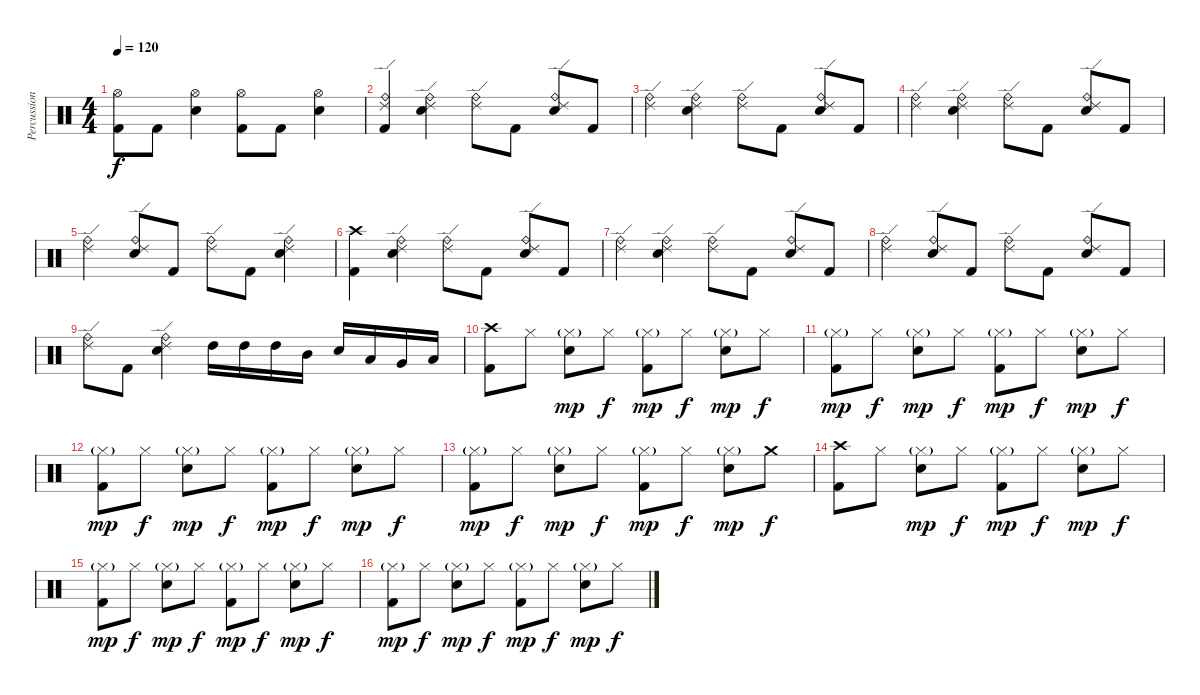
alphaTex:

\track ("Percussion" "Percussion") {instrument percussion}
\staff {score}
\articulation defaults
\ts (4 4)
\tempo 120
\clef neutral
\ks c
("Hi-Hat (open)" "Kick (hit) 2").8{dy f} "Kick (hit) 2".8 ("Hi-Hat (open)" "Electric Snare (hit)").4 ("Hi-Hat (open)" "Kick (hit) 2").8 "Kick (hit) 2".8 ("Hi-Hat (open)" "Electric Snare (hit)").4 |
("Ride (bell)" "Ride (edge) 2" "Kick (hit) 2").4 ("Ride (bell)" "Ride (edge) 2" "Electric Snare (hit)").4 ("Ride (bell)" "Ride (edge) 2").8 "Kick (hit) 2".8 ("Ride (bell)" "Ride (edge) 2" "Electric Snare (hit)").8 "Kick (hit) 2".8 |
("Ride (edge) 2" "Ride (bell)").4 ("Ride (edge) 2" "Ride (bell)" "Electric Snare (hit)").4 ("Ride (edge) 2" "Ride (bell)").8 "Kick (hit) 2".8 ("Ride (edge) 2" "Ride (bell)" "Electric Snare (hit)").8 "Kick (hit) 2".8 |
("Ride (bell)" "Ride (edge) 2").4 ("Ride (bell)" "Ride (edge) 2" "Electric Snare (hit)").4 ("Ride (bell)" "Ride (edge) 2").8 "Kick (hit) 2".8 ("Ride (bell)" "Ride (edge) 2" "Electric Snare (hit)").8 "Kick (hit) 2".8 |
("Ride (bell)" "Ride (edge) 2").4 ("Ride (bell)" "Ride (edge) 2" "Electric Snare (hit)").8 "Kick (hit) 2".8 ("Ride (bell)" "Ride (edge) 2").8 "Kick (hit) 2".8 ("Ride (bell)" "Ride (edge) 2" "Electric Snare (hit)").4 |
("Crash high (hit)" "Kick (hit) 2").4 ("Ride (bell)" "Ride (edge) 2" "Electric Snare (hit)").4 ("Ride (bell)" "Ride (edge) 2").8 "Kick (hit) 2".8 ("Ride (bell)" "Ride (edge) 2" "Electric Snare (hit)").8 "Kick (hit) 2".8 |
("Ride (bell)" "Ride (edge) 2").4 ("Ride (bell)" "Ride (edge) 2" "Electric Snare (hit)").4 ("Ride (bell)" "Ride (edge) 2").8 "Kick (hit) 2".8 ("Ride (bell)" "Ride (edge) 2" "Electric Snare (hit)").8 "Kick (hit) 2".8 |
("Ride (bell)" "Ride (edge) 2").4 ("Ride (bell)" "Ride (edge) 2" "Electric Snare (hit)").8 "Kick (hit) 2".8 ("Ride (bell)" "Ride (edge) 2").8 "Kick (hit) 2".8 ("Ride (bell)" "Ride (edge) 2" "Electric Snare (hit)").8 "Kick (hit) 2".8 |
("Ride (bell)" "Ride (edge) 2").8 "Kick (hit) 2".8 ("Ride (bell)" "Ride (edge) 2" "Electric Snare (hit)").4 "High Tom (hit)".16 "High Tom (hit)".16 "High Tom (hit)".16 "Mid Tom (hit)".16 "Electric Snare (hit)".16 "Low Tom (hit)".16 "Very Low Tom (hit)".16 "Low Floor Tom (hit)".16 |
("Crash high (hit)" "Kick (hit) 2").8 "Hi-Hat (closed)".8 ("Hi-Hat (closed)"{g} "Electric Snare (hit)").8{dy mp} "Hi-Hat (closed)".8{dy f} ("Hi-Hat (closed)"{g} "Kick (hit) 2").8{dy mp} "Hi-Hat (closed)".8{dy f} ("Hi-Hat (closed)"{g} "Electric Snare (hit)").8{dy mp} "Hi-Hat (closed)".8{dy f} |
("Hi-Hat (closed)"{g} "Kick (hit) 2").8{dy mp} "Hi-Hat (closed)".8{dy f} ("Hi-Hat (closed)"{g} "Electric Snare (hit)").8{dy mp} "Hi-Hat (closed)".8{dy f} ("Hi-Hat (closed)"{g} "Kick (hit) 2").8{dy mp} "Hi-Hat (closed)".8{dy f} ("Hi-Hat (closed)"{g} "Electric Snare (hit)").8{dy mp} "Hi-Hat (closed)".8{dy f} |
("Hi-Hat (closed)"{g} "Kick (hit) 2").8{dy mp} "Hi-Hat (closed)".8{dy f} ("Hi-Hat (closed)"{g} "Electric Snare (hit)").8{dy mp} "Hi-Hat (closed)".8{dy f} ("Hi-Hat (closed)"{g} "Kick (hit) 2").8{dy mp} "Hi-Hat (closed)".8{dy f} ("Hi-Hat (closed)"{g} "Electric Snare (hit)").8{dy mp} "Hi-Hat (closed)".8{dy f} |
("Hi-Hat (closed)"{g} "Kick (hit) 2").8{dy mp} "Hi-Hat (closed)".8{dy f} ("Hi-Hat (closed)"{g} "Electric Snare (hit)").8{dy mp} "Hi-Hat (closed)".8{dy f} ("Hi-Hat (closed)"{g} "Kick (hit) 2").8{dy mp} "Hi-Hat (closed)".8{dy f} ("Hi-Hat (closed)"{g} "Electric Snare (hit)").8{dy mp} "Crash medium (hit)".8{dy f} |
("Crash high (hit)" "Kick (hit) 2").8 "Hi-Hat (closed)".8 ("Hi-Hat (closed)"{g} "Electric Snare (hit)").8{dy mp} "Hi-Hat (closed)".8{dy f} ("Hi-Hat (closed)"{g} "Kick (hit) 2").8{dy mp} "Hi-Hat (closed)".8{dy f} ("Hi-Hat (closed)"{g} "Electric Snare (hit)").8{dy mp} "Hi-Hat (closed)".8{dy f} |
("Hi-Hat (closed)"{g} "Kick (hit) 2").8{dy mp} "Hi-Hat (closed)".8{dy f} ("Hi-Hat (closed)"{g} "Electric Snare (hit)").8{dy mp} "Hi-Hat (closed)".8{dy f} ("Hi-Hat (closed)"{g} "Kick (hit) 2").8{dy mp} "Hi-Hat (closed)".8{dy f} ("Hi-Hat (closed)"{g} "Electric Snare (hit)").8{dy mp} "Hi-Hat (closed)".8{dy f} |
("Hi-Hat (closed)"{g} "Kick (hit) 2").8{dy mp} "Hi-Hat (closed)".8{dy f} ("Hi-Hat (closed)"{g} "Electric Snare (hit)").8{dy mp} "Hi-Hat (closed)".8{dy f} ("Hi-Hat (closed)"{g} "Kick (hit) 2").8{dy mp} "Hi-Hat (closed)".8{dy f} ("Hi-Hat (closed)"{g} "Electric Snare (hit)").8{dy mp} "Hi-Hat (closed)".8{dy f}
